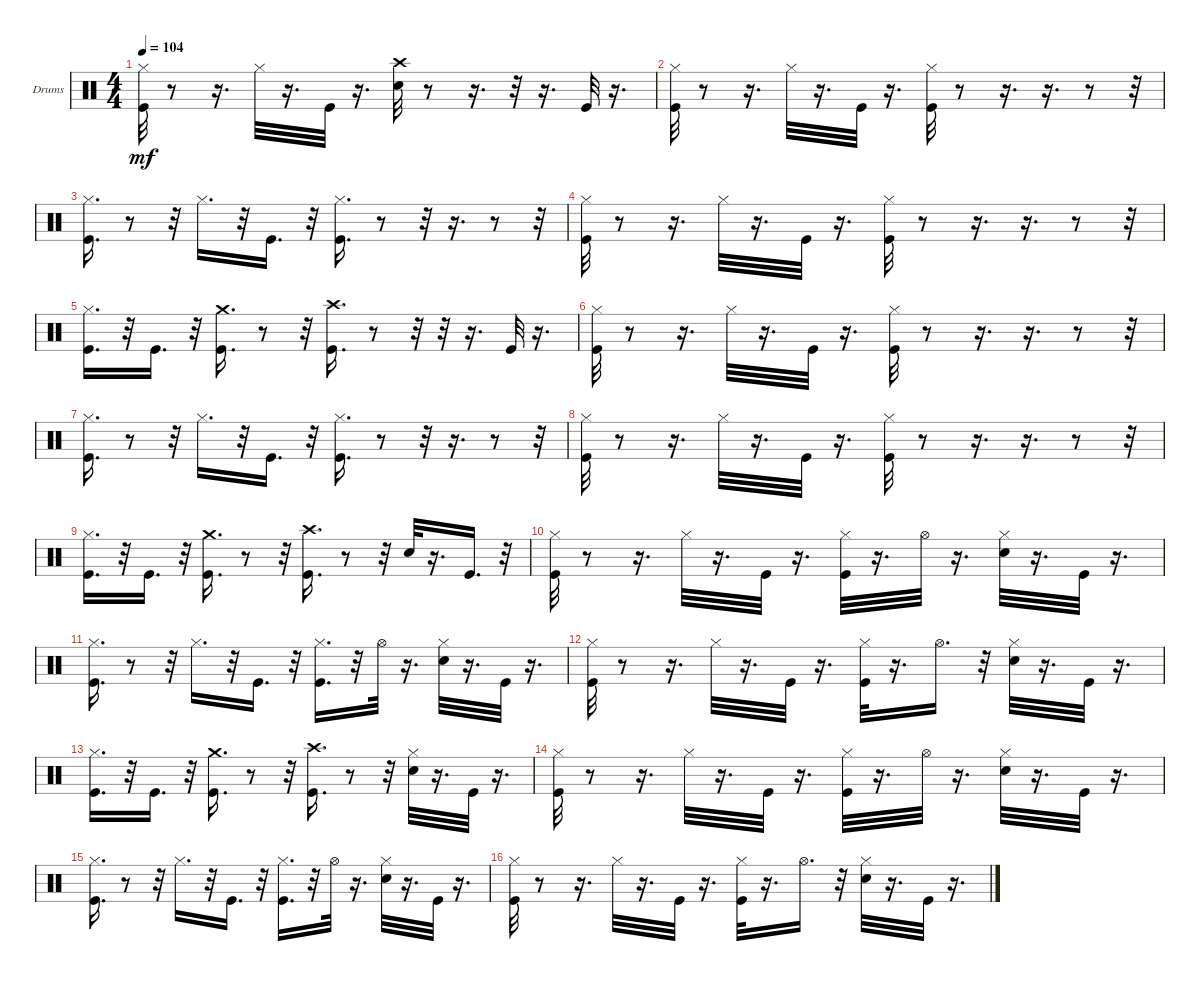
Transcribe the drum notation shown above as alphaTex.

\bracketExtendMode groupsimilarinstruments
\firstSystemTrackNameOrientation horizontal
\otherSystemsTrackNameOrientation horizontal
\track ("" "Drums") {instrument percussion}
\staff {score}
\articulation defaults
\ts (4 4)
\tempo 104
\clef neutral
\ks c
("Kick (hit)" "Hi-Hat (closed)").32{dy mf} r.8 r.16{d} "Hi-Hat (closed)".32 r.16{d} "Kick (hit)".32 r.16{d} ("Crash high (hit)" "Snare (hit) 2").32 r.8 r.16{d} r.32 r.16{d} "Kick (hit)".32 r.16{d} |
("Hi-Hat (closed)" "Kick (hit)").32 r.8 r.16{d} "Hi-Hat (closed)".32 r.16{d} "Kick (hit)".32 r.16{d} ("Hi-Hat (closed)" "Kick (hit)").32 r.8 r.16{d} r.16{d} r.8 r.32 |
("Hi-Hat (closed)" "Kick (hit)").16{d} r.8 r.32 "Hi-Hat (closed)".16{d} r.32 "Kick (hit)".16{d} r.32 ("Hi-Hat (closed)" "Kick (hit)").16{d} r.8 r.32 r.16{d} r.8 r.32 |
("Hi-Hat (closed)" "Kick (hit)").32 r.8 r.16{d} "Hi-Hat (closed)".32 r.16{d} "Kick (hit)".32 r.16{d} ("Hi-Hat (closed)" "Kick (hit)").32 r.8 r.16{d} r.16{d} r.8 r.32 |
("Hi-Hat (closed)" "Kick (hit)").16{d} r.32 "Kick (hit)".16{d} r.32 ("Crash medium (hit)" "Kick (hit)").16{d} r.8 r.32 ("Crash high (hit)" "Kick (hit)").16{d} r.8 r.32 r.32 r.16{d} "Kick (hit)".32 r.16{d} |
("Hi-Hat (closed)" "Kick (hit)").32 r.8 r.16{d} "Hi-Hat (closed)".32 r.16{d} "Kick (hit)".32 r.16{d} ("Hi-Hat (closed)" "Kick (hit)").32 r.8 r.16{d} r.16{d} r.8 r.32 |
("Hi-Hat (closed)" "Kick (hit)").16{d} r.8 r.32 "Hi-Hat (closed)".16{d} r.32 "Kick (hit)".16{d} r.32 ("Hi-Hat (closed)" "Kick (hit)").16{d} r.8 r.32 r.16{d} r.8 r.32 |
("Hi-Hat (closed)" "Kick (hit)").32 r.8 r.16{d} "Hi-Hat (closed)".32 r.16{d} "Kick (hit)".32 r.16{d} ("Hi-Hat (closed)" "Kick (hit)").32 r.8 r.16{d} r.16{d} r.8 r.32 |
("Hi-Hat (closed)" "Kick (hit)").16{d} r.32 "Kick (hit)".16{d} r.32 ("Crash medium (hit)" "Kick (hit)").16{d} r.8 r.32 ("Crash high (hit)" "Kick (hit)").16{d} r.8 r.32 "Snare (hit) 2".32 r.16{d} "Kick (hit)".16{d} r.32 |
("Hi-Hat (closed)" "Kick (hit)").32 r.8 r.16{d} "Hi-Hat (closed)".32 r.16{d} "Kick (hit)".32 r.16{d} ("Hi-Hat (closed)" "Kick (hit)").32 r.16{d} "Hi-Hat (open)".32 r.16{d} ("Hi-Hat (closed)" "Snare (hit) 2").32 r.16{d} "Kick (hit)".32 r.16{d} |
("Hi-Hat (closed)" "Kick (hit)").16{d} r.8 r.32 "Hi-Hat (closed)".16{d} r.32 "Kick (hit)".16{d} r.32 ("Hi-Hat (closed)" "Kick (hit)").16{d} r.32 "Hi-Hat (open)".32 r.16{d} ("Hi-Hat (closed)" "Snare (hit) 2").32 r.16{d} "Kick (hit)".32 r.16{d} |
("Hi-Hat (closed)" "Kick (hit)").32 r.8 r.16{d} "Hi-Hat (closed)".32 r.16{d} "Kick (hit)".32 r.16{d} ("Hi-Hat (closed)" "Kick (hit)").32 r.16{d} "Hi-Hat (open)".16{d} r.32 ("Hi-Hat (closed)" "Snare (hit) 2").32 r.16{d} "Kick (hit)".32 r.16{d} |
("Hi-Hat (closed)" "Kick (hit)").16{d} r.32 "Kick (hit)".16{d} r.32 ("Crash medium (hit)" "Kick (hit)").16{d} r.8 r.32 ("Crash high (hit)" "Kick (hit)").16{d} r.8 r.32 ("Hi-Hat (closed)" "Snare (hit) 2").32 r.16{d} "Kick (hit)".32 r.16{d} |
("Hi-Hat (closed)" "Kick (hit)").32 r.8 r.16{d} "Hi-Hat (closed)".32 r.16{d} "Kick (hit)".32 r.16{d} ("Hi-Hat (closed)" "Kick (hit)").32 r.16{d} "Hi-Hat (open)".32 r.16{d} ("Hi-Hat (closed)" "Snare (hit) 2").32 r.16{d} "Kick (hit)".32 r.16{d} |
("Hi-Hat (closed)" "Kick (hit)").16{d} r.8 r.32 "Hi-Hat (closed)".16{d} r.32 "Kick (hit)".16{d} r.32 ("Hi-Hat (closed)" "Kick (hit)").16{d} r.32 "Hi-Hat (open)".32 r.16{d} ("Hi-Hat (closed)" "Snare (hit) 2").32 r.16{d} "Kick (hit)".32 r.16{d} |
("Hi-Hat (closed)" "Kick (hit)").32 r.8 r.16{d} "Hi-Hat (closed)".32 r.16{d} "Kick (hit)".32 r.16{d} ("Hi-Hat (closed)" "Kick (hit)").32 r.16{d} "Hi-Hat (open)".16{d} r.32 ("Hi-Hat (closed)" "Snare (hit) 2").32 r.16{d} "Kick (hit)".32 r.16{d}
